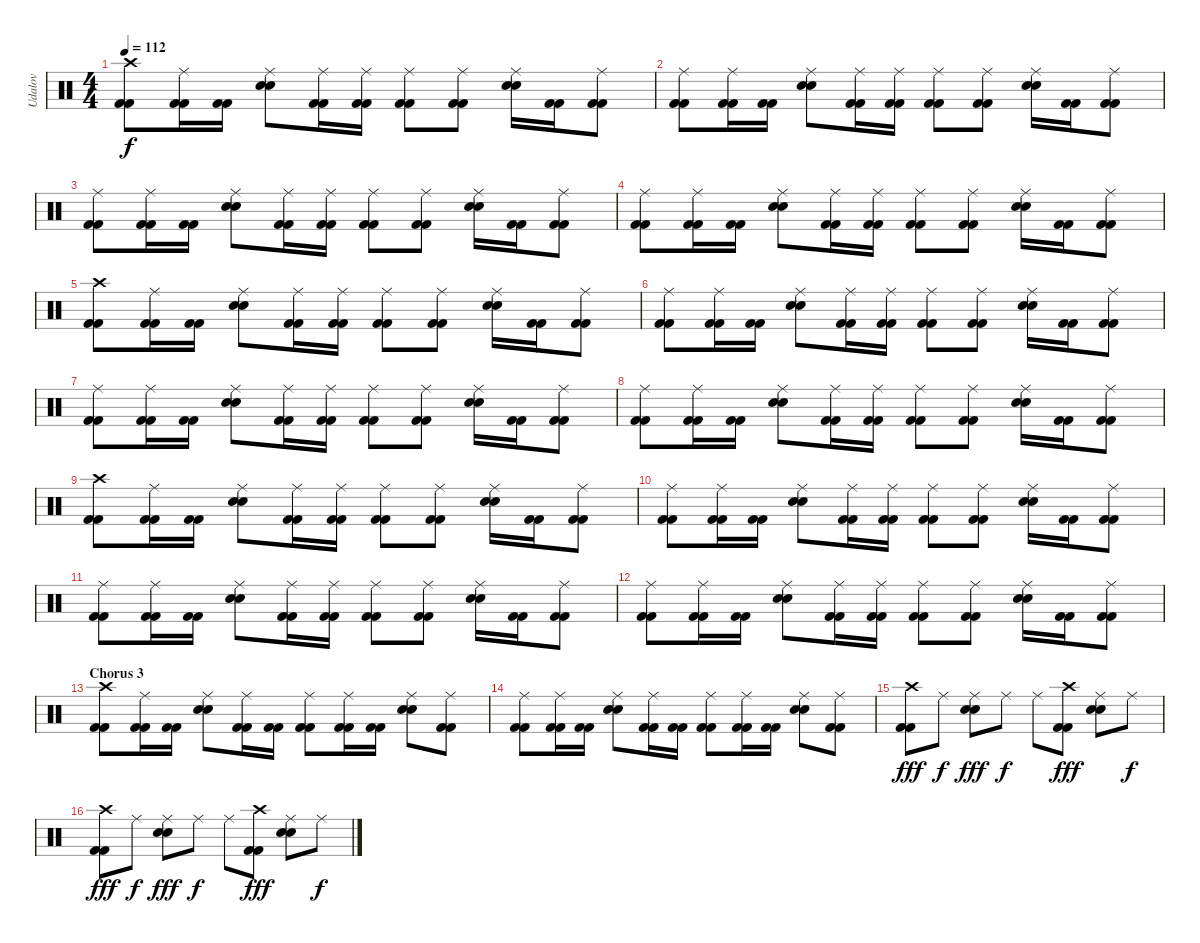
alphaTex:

\track ("Udalov" "Udalov") {instrument percussion}
\staff {score}
\articulation defaults
\ts (4 4)
\tempo 112
\clef neutral
\ks c
("Crash high (hit)" "Kick (hit) 2" "Kick (hit) 2").8{dy f} ("Ride (middle)" "Kick (hit) 2" "Kick (hit) 2").16 ("Kick (hit) 2" "Kick (hit) 2").16 ("Ride (middle)" "Electric Snare (hit)" "Electric Snare (hit)").8 ("Ride (middle)" "Kick (hit) 2" "Kick (hit) 2").16 ("Ride (middle)" "Kick (hit) 2" "Kick (hit) 2").16 ("Ride (middle)" "Kick (hit) 2" "Kick (hit) 2").8 ("Ride (middle)" "Kick (hit) 2" "Kick (hit) 2").8 ("Ride (middle)" "Electric Snare (hit)" "Electric Snare (hit)").16 ("Kick (hit) 2" "Kick (hit) 2").16 ("Ride (middle)" "Kick (hit) 2" "Kick (hit) 2").8 |
("Ride (middle)" "Kick (hit) 2" "Kick (hit) 2").8 ("Ride (middle)" "Kick (hit) 2" "Kick (hit) 2").16 ("Kick (hit) 2" "Kick (hit) 2").16 ("Ride (middle)" "Electric Snare (hit)" "Electric Snare (hit)").8 ("Ride (middle)" "Kick (hit) 2" "Kick (hit) 2").16 ("Ride (middle)" "Kick (hit) 2" "Kick (hit) 2").16 ("Ride (middle)" "Kick (hit) 2" "Kick (hit) 2").8 ("Ride (middle)" "Kick (hit) 2" "Kick (hit) 2").8 ("Ride (middle)" "Electric Snare (hit)" "Electric Snare (hit)").16 ("Kick (hit) 2" "Kick (hit) 2").16 ("Ride (middle)" "Kick (hit) 2" "Kick (hit) 2").8 |
("Ride (middle)" "Kick (hit) 2" "Kick (hit) 2").8 ("Ride (middle)" "Kick (hit) 2" "Kick (hit) 2").16 ("Kick (hit) 2" "Kick (hit) 2").16 ("Ride (middle)" "Electric Snare (hit)" "Electric Snare (hit)").8 ("Ride (middle)" "Kick (hit) 2" "Kick (hit) 2").16 ("Ride (middle)" "Kick (hit) 2" "Kick (hit) 2").16 ("Ride (middle)" "Kick (hit) 2" "Kick (hit) 2").8 ("Ride (middle)" "Kick (hit) 2" "Kick (hit) 2").8 ("Ride (middle)" "Electric Snare (hit)" "Electric Snare (hit)").16 ("Kick (hit) 2" "Kick (hit) 2").16 ("Ride (middle)" "Kick (hit) 2" "Kick (hit) 2").8 |
("Ride (middle)" "Kick (hit) 2" "Kick (hit) 2").8 ("Ride (middle)" "Kick (hit) 2" "Kick (hit) 2").16 ("Kick (hit) 2" "Kick (hit) 2").16 ("Ride (middle)" "Electric Snare (hit)" "Electric Snare (hit)").8 ("Ride (middle)" "Kick (hit) 2" "Kick (hit) 2").16 ("Ride (middle)" "Kick (hit) 2" "Kick (hit) 2").16 ("Ride (middle)" "Kick (hit) 2" "Kick (hit) 2").8 ("Ride (middle)" "Kick (hit) 2" "Kick (hit) 2").8 ("Ride (middle)" "Electric Snare (hit)" "Electric Snare (hit)").16 ("Kick (hit) 2" "Kick (hit) 2").16 ("Ride (middle)" "Kick (hit) 2" "Kick (hit) 2").8 |
("Crash high (hit)" "Kick (hit) 2" "Kick (hit) 2").8 ("Ride (middle)" "Kick (hit) 2" "Kick (hit) 2").16 ("Kick (hit) 2" "Kick (hit) 2").16 ("Ride (middle)" "Electric Snare (hit)" "Electric Snare (hit)").8 ("Ride (middle)" "Kick (hit) 2" "Kick (hit) 2").16 ("Ride (middle)" "Kick (hit) 2" "Kick (hit) 2").16 ("Ride (middle)" "Kick (hit) 2" "Kick (hit) 2").8 ("Ride (middle)" "Kick (hit) 2" "Kick (hit) 2").8 ("Ride (middle)" "Electric Snare (hit)" "Electric Snare (hit)").16 ("Kick (hit) 2" "Kick (hit) 2").16 ("Ride (middle)" "Kick (hit) 2" "Kick (hit) 2").8 |
("Ride (middle)" "Kick (hit) 2" "Kick (hit) 2").8 ("Ride (middle)" "Kick (hit) 2" "Kick (hit) 2").16 ("Kick (hit) 2" "Kick (hit) 2").16 ("Ride (middle)" "Electric Snare (hit)" "Electric Snare (hit)").8 ("Ride (middle)" "Kick (hit) 2" "Kick (hit) 2").16 ("Ride (middle)" "Kick (hit) 2" "Kick (hit) 2").16 ("Ride (middle)" "Kick (hit) 2" "Kick (hit) 2").8 ("Ride (middle)" "Kick (hit) 2" "Kick (hit) 2").8 ("Ride (middle)" "Electric Snare (hit)" "Electric Snare (hit)").16 ("Kick (hit) 2" "Kick (hit) 2").16 ("Ride (middle)" "Kick (hit) 2" "Kick (hit) 2").8 |
("Ride (middle)" "Kick (hit) 2" "Kick (hit) 2").8 ("Ride (middle)" "Kick (hit) 2" "Kick (hit) 2").16 ("Kick (hit) 2" "Kick (hit) 2").16 ("Ride (middle)" "Electric Snare (hit)" "Electric Snare (hit)").8 ("Ride (middle)" "Kick (hit) 2" "Kick (hit) 2").16 ("Ride (middle)" "Kick (hit) 2" "Kick (hit) 2").16 ("Ride (middle)" "Kick (hit) 2" "Kick (hit) 2").8 ("Ride (middle)" "Kick (hit) 2" "Kick (hit) 2").8 ("Ride (middle)" "Electric Snare (hit)" "Electric Snare (hit)").16 ("Kick (hit) 2" "Kick (hit) 2").16 ("Ride (middle)" "Kick (hit) 2" "Kick (hit) 2").8 |
("Ride (middle)" "Kick (hit) 2" "Kick (hit) 2").8 ("Ride (middle)" "Kick (hit) 2" "Kick (hit) 2").16 ("Kick (hit) 2" "Kick (hit) 2").16 ("Ride (middle)" "Electric Snare (hit)" "Electric Snare (hit)").8 ("Ride (middle)" "Kick (hit) 2" "Kick (hit) 2").16 ("Ride (middle)" "Kick (hit) 2" "Kick (hit) 2").16 ("Ride (middle)" "Kick (hit) 2" "Kick (hit) 2").8 ("Ride (middle)" "Kick (hit) 2" "Kick (hit) 2").8 ("Ride (middle)" "Electric Snare (hit)" "Electric Snare (hit)").16 ("Kick (hit) 2" "Kick (hit) 2").16 ("Ride (middle)" "Kick (hit) 2" "Kick (hit) 2").8 |
("Crash high (hit)" "Kick (hit) 2" "Kick (hit) 2").8 ("Ride (middle)" "Kick (hit) 2" "Kick (hit) 2").16 ("Kick (hit) 2" "Kick (hit) 2").16 ("Ride (middle)" "Electric Snare (hit)" "Electric Snare (hit)").8 ("Ride (middle)" "Kick (hit) 2" "Kick (hit) 2").16 ("Ride (middle)" "Kick (hit) 2" "Kick (hit) 2").16 ("Ride (middle)" "Kick (hit) 2" "Kick (hit) 2").8 ("Ride (middle)" "Kick (hit) 2" "Kick (hit) 2").8 ("Ride (middle)" "Electric Snare (hit)" "Electric Snare (hit)").16 ("Kick (hit) 2" "Kick (hit) 2").16 ("Ride (middle)" "Kick (hit) 2" "Kick (hit) 2").8 |
("Ride (middle)" "Kick (hit) 2" "Kick (hit) 2").8 ("Ride (middle)" "Kick (hit) 2" "Kick (hit) 2").16 ("Kick (hit) 2" "Kick (hit) 2").16 ("Ride (middle)" "Electric Snare (hit)" "Electric Snare (hit)").8 ("Ride (middle)" "Kick (hit) 2" "Kick (hit) 2").16 ("Ride (middle)" "Kick (hit) 2" "Kick (hit) 2").16 ("Ride (middle)" "Kick (hit) 2" "Kick (hit) 2").8 ("Ride (middle)" "Kick (hit) 2" "Kick (hit) 2").8 ("Ride (middle)" "Electric Snare (hit)" "Electric Snare (hit)").16 ("Kick (hit) 2" "Kick (hit) 2").16 ("Ride (middle)" "Kick (hit) 2" "Kick (hit) 2").8 |
("Ride (middle)" "Kick (hit) 2" "Kick (hit) 2").8 ("Ride (middle)" "Kick (hit) 2" "Kick (hit) 2").16 ("Kick (hit) 2" "Kick (hit) 2").16 ("Ride (middle)" "Electric Snare (hit)" "Electric Snare (hit)").8 ("Ride (middle)" "Kick (hit) 2" "Kick (hit) 2").16 ("Ride (middle)" "Kick (hit) 2" "Kick (hit) 2").16 ("Ride (middle)" "Kick (hit) 2" "Kick (hit) 2").8 ("Ride (middle)" "Kick (hit) 2" "Kick (hit) 2").8 ("Ride (middle)" "Electric Snare (hit)" "Electric Snare (hit)").16 ("Kick (hit) 2" "Kick (hit) 2").16 ("Ride (middle)" "Kick (hit) 2" "Kick (hit) 2").8 |
("Ride (middle)" "Kick (hit) 2" "Kick (hit) 2").8 ("Ride (middle)" "Kick (hit) 2" "Kick (hit) 2").16 ("Kick (hit) 2" "Kick (hit) 2").16 ("Ride (middle)" "Electric Snare (hit)" "Electric Snare (hit)").8 ("Ride (middle)" "Kick (hit) 2" "Kick (hit) 2").16 ("Ride (middle)" "Kick (hit) 2" "Kick (hit) 2").16 ("Ride (middle)" "Kick (hit) 2" "Kick (hit) 2").8 ("Ride (middle)" "Kick (hit) 2" "Kick (hit) 2").8 ("Ride (middle)" "Electric Snare (hit)" "Electric Snare (hit)").16 ("Kick (hit) 2" "Kick (hit) 2").16 ("Ride (middle)" "Kick (hit) 2" "Kick (hit) 2").8 |
\section ("" "Chorus 3")
("Crash high (hit)" "Kick (hit) 2" "Kick (hit) 2").8 ("Ride (middle)" "Kick (hit) 2" "Kick (hit) 2").16 ("Kick (hit) 2" "Kick (hit) 2").16 ("Ride (middle)" "Electric Snare (hit)" "Electric Snare (hit)").8 ("Ride (middle)" "Kick (hit) 2" "Kick (hit) 2").16 ("Kick (hit) 2" "Kick (hit) 2").16 ("Ride (middle)" "Kick (hit) 2" "Kick (hit) 2").8 ("Ride (middle)" "Kick (hit) 2" "Kick (hit) 2").16 ("Kick (hit) 2" "Kick (hit) 2").16 ("Ride (middle)" "Electric Snare (hit)" "Electric Snare (hit)").8 ("Ride (middle)" "Kick (hit) 2" "Kick (hit) 2").8 |
("Ride (middle)" "Kick (hit) 2" "Kick (hit) 2").8 ("Ride (middle)" "Kick (hit) 2" "Kick (hit) 2").16 ("Kick (hit) 2" "Kick (hit) 2").16 ("Ride (middle)" "Electric Snare (hit)" "Electric Snare (hit)").8 ("Ride (middle)" "Kick (hit) 2" "Kick (hit) 2").16 ("Kick (hit) 2" "Kick (hit) 2").16 ("Ride (middle)" "Kick (hit) 2" "Kick (hit) 2").8 ("Ride (middle)" "Kick (hit) 2" "Kick (hit) 2").16 ("Kick (hit) 2" "Kick (hit) 2").16 ("Ride (middle)" "Electric Snare (hit)" "Electric Snare (hit)").8 ("Ride (middle)" "Kick (hit) 2" "Kick (hit) 2").8 |
("Crash high (hit)" "Kick (hit) 2" "Kick (hit) 2").8{dy fff} "Ride (middle)".8{dy f} ("Ride (middle)" "Electric Snare (hit)" "Electric Snare (hit)").8{dy fff} "Ride (middle)".8{dy f} "Ride (middle)".8 ("Crash high (hit)" "Kick (hit) 2" "Kick (hit) 2").8{dy fff} ("Ride (middle)" "Electric Snare (hit)" "Electric Snare (hit)").8 "Ride (middle)".8{dy f} |
("Crash high (hit)" "Kick (hit) 2" "Kick (hit) 2").8{dy fff} "Ride (middle)".8{dy f} ("Ride (middle)" "Electric Snare (hit)" "Electric Snare (hit)").8{dy fff} "Ride (middle)".8{dy f} "Ride (middle)".8 ("Crash high (hit)" "Kick (hit) 2" "Kick (hit) 2").8{dy fff} ("Ride (middle)" "Electric Snare (hit)" "Electric Snare (hit)").8 "Ride (middle)".8{dy f}
